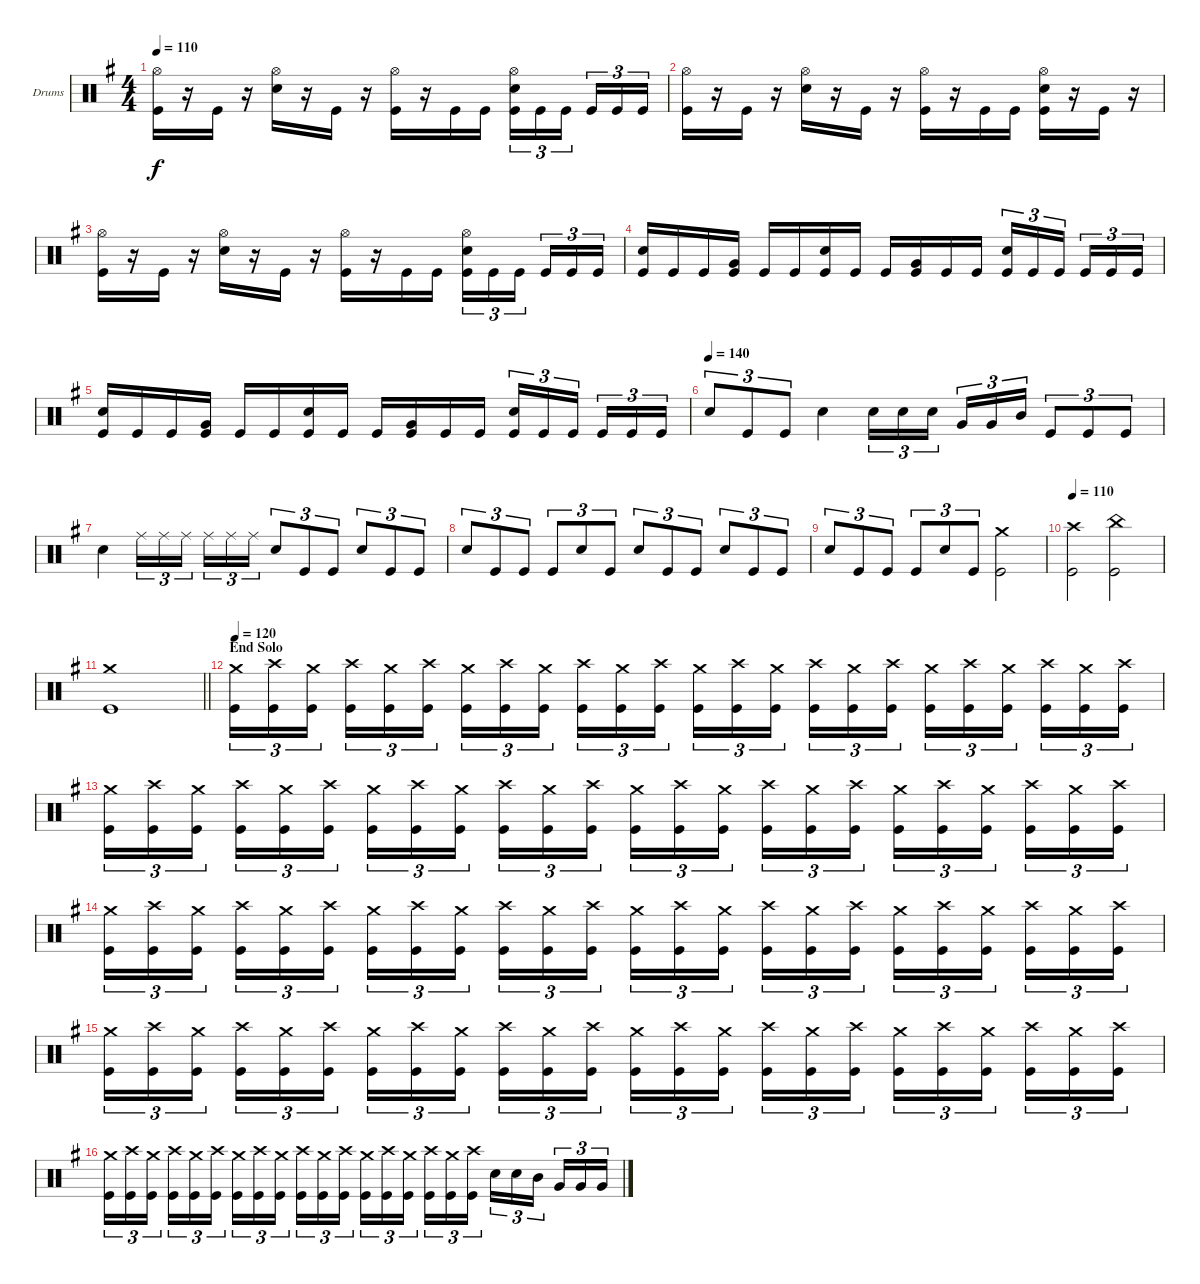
\bracketExtendMode groupsimilarinstruments
\firstSystemTrackNameOrientation horizontal
\otherSystemsTrackNameOrientation horizontal
\track ("Drumkit" "Drums") {instrument percussion}
\staff {score}
\articulation defaults
\ts (4 4)
\tempo 110
\clef neutral
\ks g
("Hi-Hat (open)" "Kick (hit)").16{dy f} r.16 "Kick (hit)".16 r.16 ("Hi-Hat (open)" "Snare (hit) 2").16 r.16 "Kick (hit)".16 r.16 ("Hi-Hat (open)" "Kick (hit)").16 r.16 "Kick (hit)".16 "Kick (hit)".16 ("Hi-Hat (open)" "Snare (hit) 2" "Kick (hit)").16{tu (3 2)} "Kick (hit)".16{tu (3 2)} "Kick (hit)".16{tu (3 2)} "Kick (hit)".16{tu (3 2)} "Kick (hit)".16{tu (3 2)} "Kick (hit)".16{tu (3 2)} |
("Hi-Hat (open)" "Kick (hit)").16 r.16 "Kick (hit)".16 r.16 ("Hi-Hat (open)" "Snare (hit) 2").16 r.16 "Kick (hit)".16 r.16 ("Hi-Hat (open)" "Kick (hit)").16 r.16 "Kick (hit)".16 "Kick (hit)".16 ("Hi-Hat (open)" "Snare (hit) 2" "Kick (hit)").16 r.16 "Kick (hit)".16 r.16 |
("Hi-Hat (open)" "Kick (hit)").16 r.16 "Kick (hit)".16 r.16 ("Hi-Hat (open)" "Snare (hit) 2").16 r.16 "Kick (hit)".16 r.16 ("Hi-Hat (open)" "Kick (hit)").16 r.16 "Kick (hit)".16 "Kick (hit)".16 ("Hi-Hat (open)" "Snare (hit) 2" "Kick (hit)").16{tu (3 2)} "Kick (hit)".16{tu (3 2)} "Kick (hit)".16{tu (3 2)} "Kick (hit)".16{tu (3 2)} "Kick (hit)".16{tu (3 2)} "Kick (hit)".16{tu (3 2)} |
("Snare (hit) 2" "Kick (hit)").16 "Kick (hit)".16 "Kick (hit)".16 ("Very Low Tom (hit)" "Kick (hit)").16 "Kick (hit)".16 "Kick (hit)".16 ("Snare (hit) 2" "Kick (hit)").16 "Kick (hit)".16 "Kick (hit)".16 ("Very Low Tom (hit)" "Kick (hit)").16 "Kick (hit)".16 "Kick (hit)".16 ("Snare (hit) 2" "Kick (hit)").16{tu (3 2)} "Kick (hit)".16{tu (3 2)} "Kick (hit)".16{tu (3 2)} "Kick (hit)".16{tu (3 2)} "Kick (hit)".16{tu (3 2)} "Kick (hit)".16{tu (3 2)} |
("Snare (hit) 2" "Kick (hit)").16 "Kick (hit)".16 "Kick (hit)".16 ("Very Low Tom (hit)" "Kick (hit)").16 "Kick (hit)".16 "Kick (hit)".16 ("Snare (hit) 2" "Kick (hit)").16 "Kick (hit)".16 "Kick (hit)".16 ("Very Low Tom (hit)" "Kick (hit)").16 "Kick (hit)".16 "Kick (hit)".16 ("Snare (hit) 2" "Kick (hit)").16{tu (3 2)} "Kick (hit)".16{tu (3 2)} "Kick (hit)".16{tu (3 2)} "Kick (hit)".16{tu (3 2)} "Kick (hit)".16{tu (3 2)} "Kick (hit)".16{tu (3 2)} |
\tempo (140)
"Snare (hit) 2".8{tu (3 2)} "Kick (hit)".8{tu (3 2)} "Kick (hit)".8{tu (3 2)} "Snare (hit) 2".4 "Snare (hit) 2".16{tu (3 2)} "Snare (hit) 2".16{tu (3 2)} "Snare (hit) 2".16{tu (3 2)} "Very Low Tom (hit)".16{tu (3 2)} "Very Low Tom (hit)".16{tu (3 2)} "Mid Tom (hit)".16{tu (3 2)} "Kick (hit)".8{tu (3 2)} "Kick (hit)".8{tu (3 2)} "Kick (hit)".8{tu (3 2)} |
"Snare (hit) 2".4 "Ride (middle)".16{tu (3 2)} "Ride (middle)".16{tu (3 2)} "Ride (middle)".16{tu (3 2)} "Ride (middle)".16{tu (3 2)} "Ride (middle)".16{tu (3 2)} "Ride (middle)".16{tu (3 2)} "Snare (hit) 2".8{tu (3 2)} "Kick (hit)".8{tu (3 2)} "Kick (hit)".8{tu (3 2)} "Snare (hit) 2".8{tu (3 2)} "Kick (hit)".8{tu (3 2)} "Kick (hit)".8{tu (3 2)} |
"Snare (hit) 2".8{tu (3 2)} "Kick (hit)".8{tu (3 2)} "Kick (hit)".8{tu (3 2)} "Kick (hit)".8{tu (3 2)} "Snare (hit) 2".8{tu (3 2)} "Kick (hit)".8{tu (3 2)} "Snare (hit) 2".8{tu (3 2)} "Kick (hit)".8{tu (3 2)} "Kick (hit)".8{tu (3 2)} "Snare (hit) 2".8{tu (3 2)} "Kick (hit)".8{tu (3 2)} "Kick (hit)".8{tu (3 2)} |
"Snare (hit) 2".8{tu (3 2)} "Kick (hit)".8{tu (3 2)} "Kick (hit)".8{tu (3 2)} "Kick (hit)".8{tu (3 2)} "Snare (hit) 2".8{tu (3 2)} "Kick (hit)".8{tu (3 2)} ("Crash medium (hit)" "Kick (hit)").2 |
\tempo 110
("Crash high (hit)" "Kick (hit)").2 ("China (hit)" "Kick (hit)").2 |
\barLineRight lightlight
("Crash medium (hit)" "Kick (hit)").1 |
\section ("" "End Solo")
\tempo 120
("Crash medium (hit)" "Kick (hit)").16{tu (3 2)} ("Crash high (hit)" "Kick (hit)").16{tu (3 2)} ("Crash medium (hit)" "Kick (hit)").16{tu (3 2)} ("Crash high (hit)" "Kick (hit)").16{tu (3 2)} ("Crash medium (hit)" "Kick (hit)").16{tu (3 2)} ("Crash high (hit)" "Kick (hit)").16{tu (3 2)} ("Crash medium (hit)" "Kick (hit)").16{tu (3 2)} ("Crash high (hit)" "Kick (hit)").16{tu (3 2)} ("Crash medium (hit)" "Kick (hit)").16{tu (3 2)} ("Crash high (hit)" "Kick (hit)").16{tu (3 2)} ("Crash medium (hit)" "Kick (hit)").16{tu (3 2)} ("Crash high (hit)" "Kick (hit)").16{tu (3 2)} ("Crash medium (hit)" "Kick (hit)").16{tu (3 2)} ("Crash high (hit)" "Kick (hit)").16{tu (3 2)} ("Crash medium (hit)" "Kick (hit)").16{tu (3 2)} ("Crash high (hit)" "Kick (hit)").16{tu (3 2)} ("Crash medium (hit)" "Kick (hit)").16{tu (3 2)} ("Crash high (hit)" "Kick (hit)").16{tu (3 2)} ("Crash medium (hit)" "Kick (hit)").16{tu (3 2)} ("Crash high (hit)" "Kick (hit)").16{tu (3 2)} ("Crash medium (hit)" "Kick (hit)").16{tu (3 2)} ("Crash high (hit)" "Kick (hit)").16{tu (3 2)} ("Crash medium (hit)" "Kick (hit)").16{tu (3 2)} ("Crash high (hit)" "Kick (hit)").16{tu (3 2)} |
("Crash medium (hit)" "Kick (hit)").16{tu (3 2)} ("Crash high (hit)" "Kick (hit)").16{tu (3 2)} ("Crash medium (hit)" "Kick (hit)").16{tu (3 2)} ("Crash high (hit)" "Kick (hit)").16{tu (3 2)} ("Crash medium (hit)" "Kick (hit)").16{tu (3 2)} ("Crash high (hit)" "Kick (hit)").16{tu (3 2)} ("Crash medium (hit)" "Kick (hit)").16{tu (3 2)} ("Crash high (hit)" "Kick (hit)").16{tu (3 2)} ("Crash medium (hit)" "Kick (hit)").16{tu (3 2)} ("Crash high (hit)" "Kick (hit)").16{tu (3 2)} ("Crash medium (hit)" "Kick (hit)").16{tu (3 2)} ("Crash high (hit)" "Kick (hit)").16{tu (3 2)} ("Crash medium (hit)" "Kick (hit)").16{tu (3 2)} ("Crash high (hit)" "Kick (hit)").16{tu (3 2)} ("Crash medium (hit)" "Kick (hit)").16{tu (3 2)} ("Crash high (hit)" "Kick (hit)").16{tu (3 2)} ("Crash medium (hit)" "Kick (hit)").16{tu (3 2)} ("Crash high (hit)" "Kick (hit)").16{tu (3 2)} ("Crash medium (hit)" "Kick (hit)").16{tu (3 2)} ("Crash high (hit)" "Kick (hit)").16{tu (3 2)} ("Crash medium (hit)" "Kick (hit)").16{tu (3 2)} ("Crash high (hit)" "Kick (hit)").16{tu (3 2)} ("Crash medium (hit)" "Kick (hit)").16{tu (3 2)} ("Crash high (hit)" "Kick (hit)").16{tu (3 2)} |
("Crash medium (hit)" "Kick (hit)").16{tu (3 2)} ("Crash high (hit)" "Kick (hit)").16{tu (3 2)} ("Crash medium (hit)" "Kick (hit)").16{tu (3 2)} ("Crash high (hit)" "Kick (hit)").16{tu (3 2)} ("Crash medium (hit)" "Kick (hit)").16{tu (3 2)} ("Crash high (hit)" "Kick (hit)").16{tu (3 2)} ("Crash medium (hit)" "Kick (hit)").16{tu (3 2)} ("Crash high (hit)" "Kick (hit)").16{tu (3 2)} ("Crash medium (hit)" "Kick (hit)").16{tu (3 2)} ("Crash high (hit)" "Kick (hit)").16{tu (3 2)} ("Crash medium (hit)" "Kick (hit)").16{tu (3 2)} ("Crash high (hit)" "Kick (hit)").16{tu (3 2)} ("Crash medium (hit)" "Kick (hit)").16{tu (3 2)} ("Crash high (hit)" "Kick (hit)").16{tu (3 2)} ("Crash medium (hit)" "Kick (hit)").16{tu (3 2)} ("Crash high (hit)" "Kick (hit)").16{tu (3 2)} ("Crash medium (hit)" "Kick (hit)").16{tu (3 2)} ("Crash high (hit)" "Kick (hit)").16{tu (3 2)} ("Crash medium (hit)" "Kick (hit)").16{tu (3 2)} ("Crash high (hit)" "Kick (hit)").16{tu (3 2)} ("Crash medium (hit)" "Kick (hit)").16{tu (3 2)} ("Crash high (hit)" "Kick (hit)").16{tu (3 2)} ("Crash medium (hit)" "Kick (hit)").16{tu (3 2)} ("Crash high (hit)" "Kick (hit)").16{tu (3 2)} |
("Crash medium (hit)" "Kick (hit)").16{tu (3 2)} ("Crash high (hit)" "Kick (hit)").16{tu (3 2)} ("Crash medium (hit)" "Kick (hit)").16{tu (3 2)} ("Crash high (hit)" "Kick (hit)").16{tu (3 2)} ("Crash medium (hit)" "Kick (hit)").16{tu (3 2)} ("Crash high (hit)" "Kick (hit)").16{tu (3 2)} ("Crash medium (hit)" "Kick (hit)").16{tu (3 2)} ("Crash high (hit)" "Kick (hit)").16{tu (3 2)} ("Crash medium (hit)" "Kick (hit)").16{tu (3 2)} ("Crash high (hit)" "Kick (hit)").16{tu (3 2)} ("Crash medium (hit)" "Kick (hit)").16{tu (3 2)} ("Crash high (hit)" "Kick (hit)").16{tu (3 2)} ("Crash medium (hit)" "Kick (hit)").16{tu (3 2)} ("Crash high (hit)" "Kick (hit)").16{tu (3 2)} ("Crash medium (hit)" "Kick (hit)").16{tu (3 2)} ("Crash high (hit)" "Kick (hit)").16{tu (3 2)} ("Crash medium (hit)" "Kick (hit)").16{tu (3 2)} ("Crash high (hit)" "Kick (hit)").16{tu (3 2)} ("Crash medium (hit)" "Kick (hit)").16{tu (3 2)} ("Crash high (hit)" "Kick (hit)").16{tu (3 2)} ("Crash medium (hit)" "Kick (hit)").16{tu (3 2)} ("Crash high (hit)" "Kick (hit)").16{tu (3 2)} ("Crash medium (hit)" "Kick (hit)").16{tu (3 2)} ("Crash high (hit)" "Kick (hit)").16{tu (3 2)} |
("Crash medium (hit)" "Kick (hit)").16{tu (3 2)} ("Crash high (hit)" "Kick (hit)").16{tu (3 2)} ("Crash medium (hit)" "Kick (hit)").16{tu (3 2)} ("Crash high (hit)" "Kick (hit)").16{tu (3 2)} ("Crash medium (hit)" "Kick (hit)").16{tu (3 2)} ("Crash high (hit)" "Kick (hit)").16{tu (3 2)} ("Crash medium (hit)" "Kick (hit)").16{tu (3 2)} ("Crash high (hit)" "Kick (hit)").16{tu (3 2)} ("Crash medium (hit)" "Kick (hit)").16{tu (3 2)} ("Crash high (hit)" "Kick (hit)").16{tu (3 2)} ("Crash medium (hit)" "Kick (hit)").16{tu (3 2)} ("Crash high (hit)" "Kick (hit)").16{tu (3 2)} ("Crash medium (hit)" "Kick (hit)").16{tu (3 2)} ("Crash high (hit)" "Kick (hit)").16{tu (3 2)} ("Crash medium (hit)" "Kick (hit)").16{tu (3 2)} ("Crash high (hit)" "Kick (hit)").16{tu (3 2)} ("Crash medium (hit)" "Kick (hit)").16{tu (3 2)} ("Crash high (hit)" "Kick (hit)").16{tu (3 2)} "Snare (hit) 2".16{tu (3 2)} "Snare (hit) 2".16{tu (3 2)} "Mid Tom (hit)".16{tu (3 2)} "Very Low Tom (hit)".16{tu (3 2)} "Very Low Tom (hit)".16{tu (3 2)} "Very Low Tom (hit)".16{tu (3 2)}
